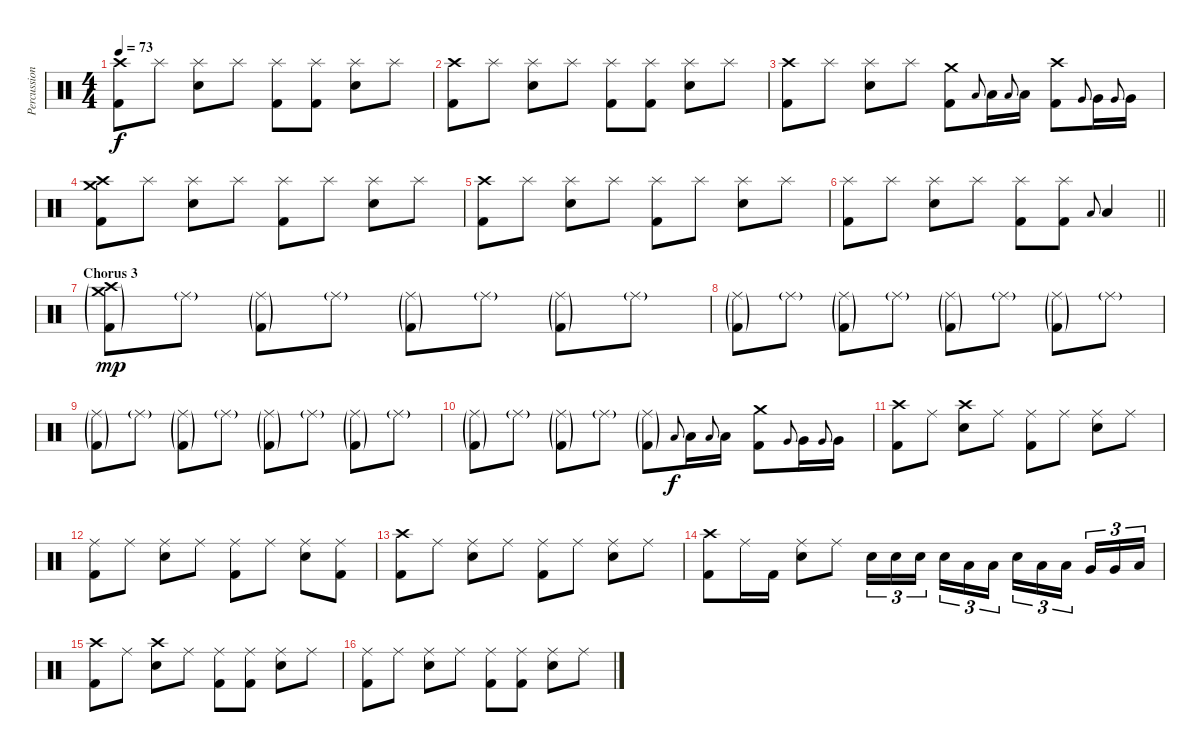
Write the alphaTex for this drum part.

\track ("Percussion" "Percussion") {instrument percussion}
\staff {score}
\articulation defaults
\ts (4 4)
\tempo 73
\clef neutral
\ks c
("Crash high (hit)" "Kick (hit) 2").8{dy f} "Splash (hit)".8 ("Splash (hit)" "Electric Snare (hit)").8 "Splash (hit)".8 ("Splash (hit)" "Kick (hit) 2").8 ("Splash (hit)" "Kick (hit) 2").8 ("Splash (hit)" "Electric Snare (hit)").8 "Splash (hit)".8 |
("Crash high (hit)" "Kick (hit) 2").8 "Splash (hit)".8 ("Splash (hit)" "Electric Snare (hit)").8 "Splash (hit)".8 ("Splash (hit)" "Kick (hit) 2").8 ("Splash (hit)" "Kick (hit) 2").8 ("Splash (hit)" "Electric Snare (hit)").8 "Splash (hit)".8 |
("Crash high (hit)" "Kick (hit) 2").8 "Splash (hit)".8 ("Splash (hit)" "Electric Snare (hit)").8 "Splash (hit)".8 ("Crash medium (hit)" "Kick (hit) 2").8 "Low Tom (hit)".8{gr onbeat} "Low Tom (hit)".16 "Low Tom (hit)".8{gr onbeat} "Low Tom (hit)".16 ("Crash high (hit)" "Kick (hit) 2").8 "Very Low Tom (hit)".8{gr onbeat} "Very Low Tom (hit)".16 "Very Low Tom (hit)".8{gr onbeat} "Very Low Tom (hit)".16 |
("Crash medium (hit)" "Crash high (hit)" "Kick (hit) 2").8 "Splash (hit)".8 ("Splash (hit)" "Electric Snare (hit)").8 "Splash (hit)".8 ("Splash (hit)" "Kick (hit) 2").8 "Splash (hit)".8 ("Splash (hit)" "Electric Snare (hit)").8 "Splash (hit)".8 |
("Crash high (hit)" "Kick (hit) 2").8 "Splash (hit)".8 ("Splash (hit)" "Electric Snare (hit)").8 "Splash (hit)".8 ("Splash (hit)" "Kick (hit) 2").8 "Splash (hit)".8 ("Splash (hit)" "Electric Snare (hit)").8 "Splash (hit)".8 |
\barLineRight lightlight
("Splash (hit)" "Kick (hit) 2").8 "Splash (hit)".8 ("Splash (hit)" "Electric Snare (hit)").8 "Splash (hit)".8 ("Splash (hit)" "Kick (hit) 2").8 ("Splash (hit)" "Kick (hit) 2").8 "Low Tom (hit)".8{gr onbeat} "Low Tom (hit)".4 |
\section ("" "Chorus 3")
("Crash medium (hit)"{g} "Crash high (hit)"{g} "Kick (hit) 2"{g}).8{dy mp} "Ride (middle)"{g}.8 ("Ride (middle)"{g} "Kick (hit) 2"{g}).8 "Ride (middle)"{g}.8 ("Ride (middle)"{g} "Kick (hit) 2"{g}).8 "Ride (middle)"{g}.8 ("Ride (middle)"{g} "Kick (hit) 2"{g}).8 "Ride (middle)"{g}.8 |
("Ride (middle)"{g} "Kick (hit) 2"{g}).8 "Ride (middle)"{g}.8 ("Ride (middle)"{g} "Kick (hit) 2"{g}).8 "Ride (middle)"{g}.8 ("Ride (middle)"{g} "Kick (hit) 2"{g}).8 "Ride (middle)"{g}.8 ("Ride (middle)"{g} "Kick (hit) 2"{g}).8 "Ride (middle)"{g}.8 |
("Ride (middle)"{g} "Kick (hit) 2"{g}).8 "Ride (middle)"{g}.8 ("Ride (middle)"{g} "Kick (hit) 2"{g}).8 "Ride (middle)"{g}.8 ("Ride (middle)"{g} "Kick (hit) 2"{g}).8 "Ride (middle)"{g}.8 ("Ride (middle)"{g} "Kick (hit) 2"{g}).8 "Ride (middle)"{g}.8 |
("Ride (middle)"{g} "Kick (hit) 2"{g}).8 "Ride (middle)"{g}.8 ("Ride (middle)"{g} "Kick (hit) 2"{g}).8 "Ride (middle)"{g}.8 ("Ride (middle)"{g} "Kick (hit) 2"{g}).8 "Low Tom (hit)".8{gr onbeat dy f} "Low Tom (hit)".16 "Low Tom (hit)".8{gr onbeat} "Low Tom (hit)".16 ("Crash medium (hit)" "Kick (hit) 2").8 "Very Low Tom (hit)".8{gr onbeat} "Very Low Tom (hit)".16 "Very Low Tom (hit)".8{gr onbeat} "Very Low Tom (hit)".16 |
("Crash high (hit)" "Kick (hit) 2").8 "Ride (middle)".8 ("Crash high (hit)" "Electric Snare (hit)").8 "Ride (middle)".8 ("Ride (middle)" "Kick (hit) 2").8 "Ride (middle)".8 ("Ride (middle)" "Electric Snare (hit)").8 "Ride (middle)".8 |
("Ride (middle)" "Kick (hit) 2").8 "Ride (middle)".8 ("Ride (middle)" "Electric Snare (hit)").8 "Ride (middle)".8 ("Ride (middle)" "Kick (hit) 2").8 "Ride (middle)".8 ("Ride (middle)" "Electric Snare (hit)").8 ("Ride (middle)" "Kick (hit) 2").8 |
("Crash high (hit)" "Kick (hit) 2").8 "Ride (middle)".8 ("Ride (middle)" "Electric Snare (hit)").8 "Ride (middle)".8 ("Ride (middle)" "Kick (hit) 2").8 "Ride (middle)".8 ("Ride (middle)" "Electric Snare (hit)").8 "Ride (middle)".8 |
("Crash high (hit)" "Kick (hit) 2").8 "Ride (middle)".16 "Kick (hit) 2".16 ("Ride (middle)" "Electric Snare (hit)").8 "Ride (middle)".8 "Electric Snare (hit)".16{tu (3 2)} "Electric Snare (hit)".16{tu (3 2)} "Electric Snare (hit)".16{tu (3 2) beam splitsecondary} "Electric Snare (hit)".16{tu (3 2)} "Low Tom (hit)".16{tu (3 2)} "Low Tom (hit)".16{tu (3 2)} "Electric Snare (hit)".16{tu (3 2)} "Low Tom (hit)".16{tu (3 2)} "Low Tom (hit)".16{tu (3 2) beam splitsecondary} "Very Low Tom (hit)".16{tu (3 2)} "Very Low Tom (hit)".16{tu (3 2)} "Low Floor Tom (hit)".16{tu (3 2)} |
("Crash high (hit)" "Kick (hit) 2").8 "Ride (middle)".8 ("Crash high (hit)" "Electric Snare (hit)").8 "Ride (middle)".8 ("Ride (middle)" "Kick (hit) 2").8 ("Ride (middle)" "Kick (hit) 2").8 ("Ride (middle)" "Electric Snare (hit)").8 "Ride (middle)".8 |
("Ride (middle)" "Kick (hit) 2").8 "Ride (middle)".8 ("Ride (middle)" "Electric Snare (hit)").8 "Ride (middle)".8 ("Ride (middle)" "Kick (hit) 2").8 ("Ride (middle)" "Kick (hit) 2").8 ("Ride (middle)" "Electric Snare (hit)").8 "Ride (middle)".8
